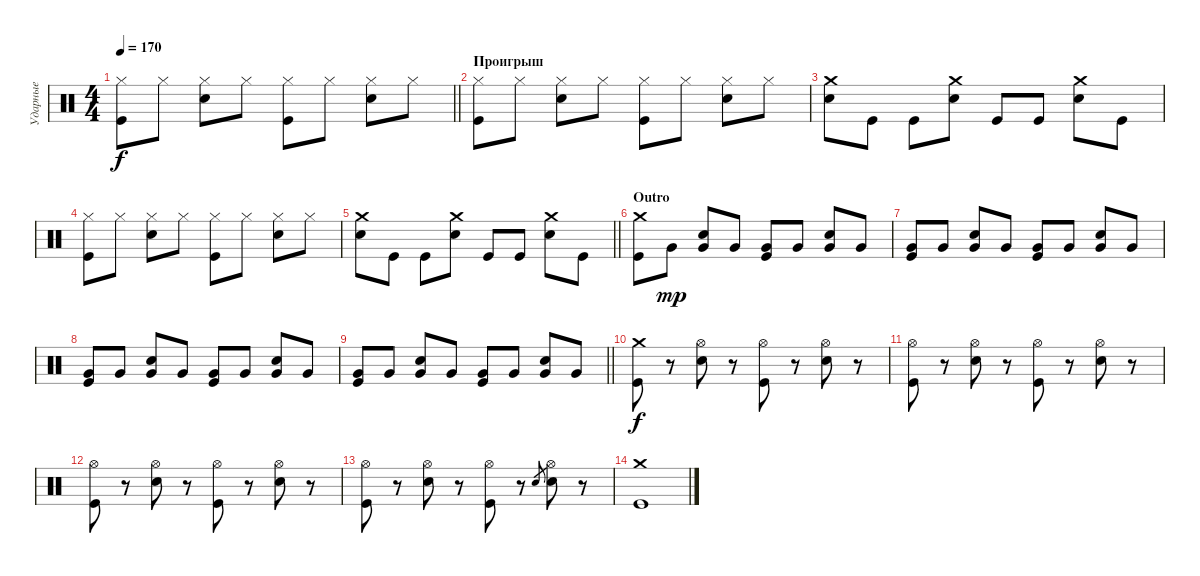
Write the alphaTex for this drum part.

\track ("Ударные" "Ударные") {instrument percussion}
\staff {score}
\articulation defaults
\ts (4 4)
\tempo 170
\clef neutral
\barLineRight lightlight
\ks c
("Hi-Hat (closed)" "Kick (hit)").8{dy f} "Hi-Hat (closed)".8 ("Hi-Hat (closed)" "Electric Snare (hit)").8 "Hi-Hat (closed)".8 ("Hi-Hat (closed)" "Kick (hit)").8 "Hi-Hat (closed)".8 ("Hi-Hat (closed)" "Electric Snare (hit)").8 "Hi-Hat (closed)".8 |
\section ("" "Проигрыш")
("Hi-Hat (closed)" "Kick (hit)").8 "Hi-Hat (closed)".8 ("Hi-Hat (closed)" "Electric Snare (hit)").8 "Hi-Hat (closed)".8 ("Hi-Hat (closed)" "Kick (hit)").8 "Hi-Hat (closed)".8 ("Hi-Hat (closed)" "Electric Snare (hit)").8 "Hi-Hat (closed)".8 |
("Crash medium (hit)" "Electric Snare (hit)").8 "Kick (hit)".8 "Kick (hit)".8 ("Crash medium (hit)" "Electric Snare (hit)").8 "Kick (hit)".8 "Kick (hit)".8 ("Crash medium (hit)" "Electric Snare (hit)").8 "Kick (hit)".8 |
("Hi-Hat (closed)" "Kick (hit)").8 "Hi-Hat (closed)".8 ("Hi-Hat (closed)" "Electric Snare (hit)").8 "Hi-Hat (closed)".8 ("Hi-Hat (closed)" "Kick (hit)").8 "Hi-Hat (closed)".8 ("Hi-Hat (closed)" "Electric Snare (hit)").8 "Hi-Hat (closed)".8 |
\barLineRight lightlight
("Crash medium (hit)" "Electric Snare (hit)").8 "Kick (hit)".8 "Kick (hit)".8 ("Crash medium (hit)" "Electric Snare (hit)").8 "Kick (hit)".8 "Kick (hit)".8 ("Crash medium (hit)" "Electric Snare (hit)").8 "Kick (hit)".8 |
\section ("" "Outro")
("Crash medium (hit)" "Kick (hit)").8 "Very Low Tom (hit)".8{dy mp} ("Very Low Tom (hit)" "Electric Snare (hit)").8 "Very Low Tom (hit)".8 ("Very Low Tom (hit)" "Kick (hit)").8 "Very Low Tom (hit)".8 ("Very Low Tom (hit)" "Electric Snare (hit)").8 "Very Low Tom (hit)".8 |
("Very Low Tom (hit)" "Kick (hit)").8 "Very Low Tom (hit)".8 ("Very Low Tom (hit)" "Electric Snare (hit)").8 "Very Low Tom (hit)".8 ("Very Low Tom (hit)" "Kick (hit)").8 "Very Low Tom (hit)".8 ("Very Low Tom (hit)" "Electric Snare (hit)").8 "Very Low Tom (hit)".8 |
("Very Low Tom (hit)" "Kick (hit)").8 "Very Low Tom (hit)".8 ("Very Low Tom (hit)" "Electric Snare (hit)").8 "Very Low Tom (hit)".8 ("Very Low Tom (hit)" "Kick (hit)").8 "Very Low Tom (hit)".8 ("Very Low Tom (hit)" "Electric Snare (hit)").8 "Very Low Tom (hit)".8 |
\barLineRight lightlight
("Very Low Tom (hit)" "Kick (hit)").8 "Very Low Tom (hit)".8 ("Very Low Tom (hit)" "Electric Snare (hit)").8 "Very Low Tom (hit)".8 ("Very Low Tom (hit)" "Kick (hit)").8 "Very Low Tom (hit)".8 ("Very Low Tom (hit)" "Electric Snare (hit)").8 "Very Low Tom (hit)".8 |
\section ("" " ")
("Crash medium (hit)" "Kick (hit)").8{dy f} r.8 ("Hi-Hat (open)" "Electric Snare (hit)").8 r.8 ("Hi-Hat (open)" "Kick (hit)").8 r.8 ("Hi-Hat (open)" "Electric Snare (hit)").8 r.8 |
("Hi-Hat (open)" "Kick (hit)").8 r.8 ("Hi-Hat (open)" "Electric Snare (hit)").8 r.8 ("Hi-Hat (open)" "Kick (hit)").8 r.8 ("Hi-Hat (open)" "Electric Snare (hit)").8 r.8 |
("Hi-Hat (open)" "Kick (hit)").8 r.8 ("Hi-Hat (open)" "Electric Snare (hit)").8 r.8 ("Hi-Hat (open)" "Kick (hit)").8 r.8 ("Hi-Hat (open)" "Electric Snare (hit)").8 r.8 |
("Hi-Hat (open)" "Kick (hit)").8 r.8 ("Hi-Hat (open)" "Electric Snare (hit)").8 r.8 ("Hi-Hat (open)" "Kick (hit)").8 r.8 "Electric Snare (hit)".8{gr} ("Hi-Hat (open)" "Electric Snare (hit)").8 r.8 |
("Crash medium (hit)" "Kick (hit)").1
